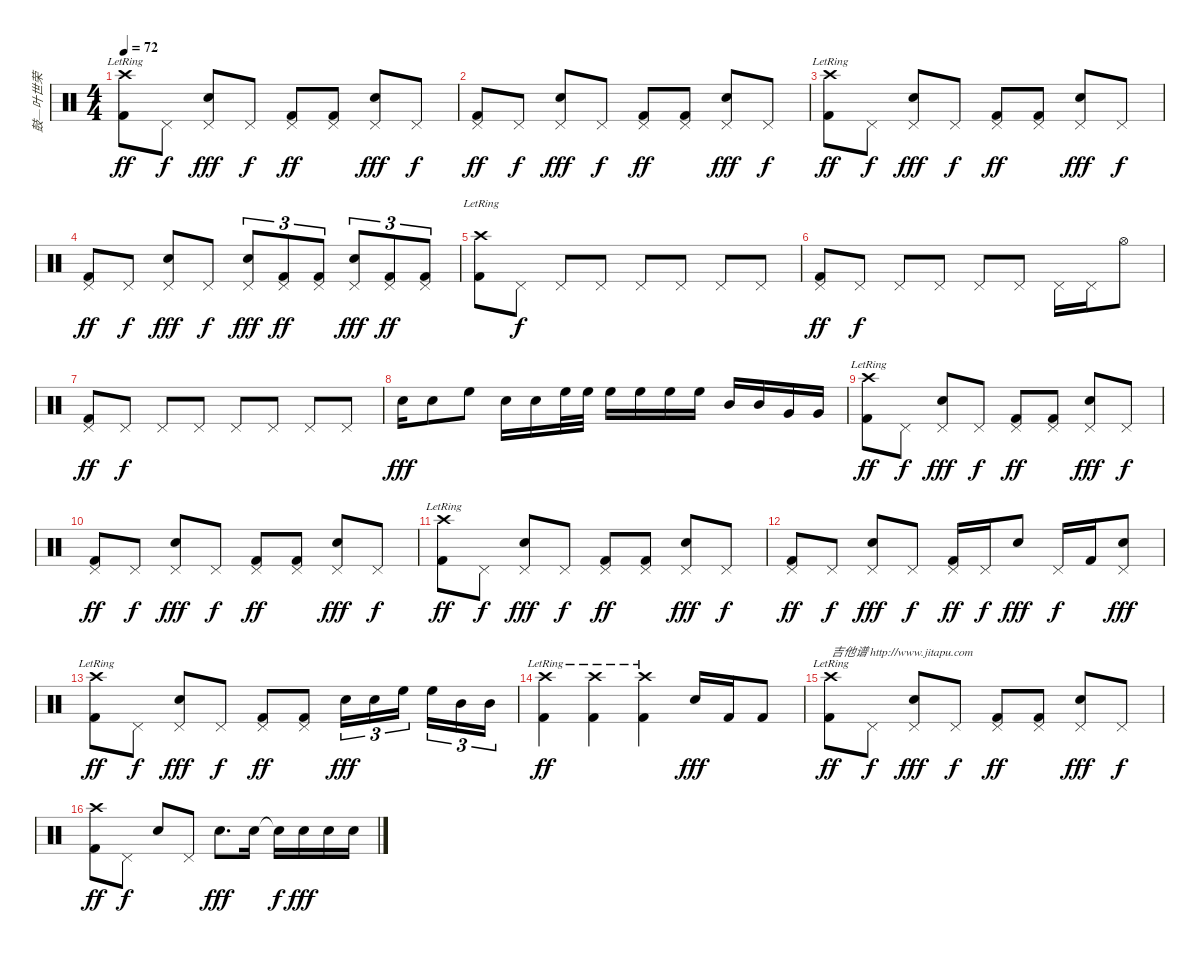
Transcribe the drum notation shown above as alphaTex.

\track ("鼓—叶世荣" "鼓—叶世荣") {instrument percussion}
\staff {score}
\articulation defaults
\ts (4 4)
\tempo 72
\clef neutral
\ks c
("Crash high (hit)"{lr} "Kick (hit) 2").8{dy ff} "Pedal Hi-Hat (hit)".8{dy f} ("Pedal Hi-Hat (hit)" "Electric Snare (hit)").8{dy fff} "Pedal Hi-Hat (hit)".8{dy f} ("Pedal Hi-Hat (hit)" "Kick (hit) 2").8{dy ff} ("Pedal Hi-Hat (hit)" "Kick (hit) 2").8 ("Pedal Hi-Hat (hit)" "Electric Snare (hit)").8{dy fff} "Pedal Hi-Hat (hit)".8{dy f} |
("Pedal Hi-Hat (hit)" "Kick (hit) 2").8{dy ff} "Pedal Hi-Hat (hit)".8{dy f} ("Pedal Hi-Hat (hit)" "Electric Snare (hit)").8{dy fff} "Pedal Hi-Hat (hit)".8{dy f} ("Pedal Hi-Hat (hit)" "Kick (hit) 2").8{dy ff} ("Pedal Hi-Hat (hit)" "Kick (hit) 2").8 ("Pedal Hi-Hat (hit)" "Electric Snare (hit)").8{dy fff} "Pedal Hi-Hat (hit)".8{dy f} |
("Crash high (hit)"{lr} "Kick (hit) 2").8{dy ff} "Pedal Hi-Hat (hit)".8{dy f} ("Pedal Hi-Hat (hit)" "Electric Snare (hit)").8{dy fff} "Pedal Hi-Hat (hit)".8{dy f} ("Pedal Hi-Hat (hit)" "Kick (hit) 2").8{dy ff} ("Pedal Hi-Hat (hit)" "Kick (hit) 2").8 ("Pedal Hi-Hat (hit)" "Electric Snare (hit)").8{dy fff} "Pedal Hi-Hat (hit)".8{dy f} |
("Pedal Hi-Hat (hit)" "Kick (hit) 2").8{dy ff} "Pedal Hi-Hat (hit)".8{dy f} ("Pedal Hi-Hat (hit)" "Electric Snare (hit)").8{dy fff} "Pedal Hi-Hat (hit)".8{dy f} ("Pedal Hi-Hat (hit)" "Electric Snare (hit)").8{tu (3 2) dy fff} ("Pedal Hi-Hat (hit)" "Kick (hit) 2").8{tu (3 2) dy ff} ("Pedal Hi-Hat (hit)" "Kick (hit) 2").8{tu (3 2)} ("Pedal Hi-Hat (hit)" "Electric Snare (hit)").8{tu (3 2) dy fff} ("Pedal Hi-Hat (hit)" "Kick (hit) 2").8{tu (3 2) dy ff} ("Pedal Hi-Hat (hit)" "Kick (hit) 2").8{tu (3 2)} |
("Crash high (hit)"{lr} "Kick (hit) 2").8 "Pedal Hi-Hat (hit)".8{dy f} "Pedal Hi-Hat (hit)".8 "Pedal Hi-Hat (hit)".8 "Pedal Hi-Hat (hit)".8 "Pedal Hi-Hat (hit)".8 "Pedal Hi-Hat (hit)".8 "Pedal Hi-Hat (hit)".8 |
("Pedal Hi-Hat (hit)" "Kick (hit) 2").8{dy ff} "Pedal Hi-Hat (hit)".8{dy f} "Pedal Hi-Hat (hit)".8 "Pedal Hi-Hat (hit)".8 "Pedal Hi-Hat (hit)".8 "Pedal Hi-Hat (hit)".8 "Pedal Hi-Hat (hit)".16 "Pedal Hi-Hat (hit)".16 "Hi-Hat (open)".8 |
("Pedal Hi-Hat (hit)" "Kick (hit) 2").8{dy ff} "Pedal Hi-Hat (hit)".8{dy f} "Pedal Hi-Hat (hit)".8 "Pedal Hi-Hat (hit)".8 "Pedal Hi-Hat (hit)".8 "Pedal Hi-Hat (hit)".8 "Pedal Hi-Hat (hit)".8 "Pedal Hi-Hat (hit)".8 |
"Electric Snare (hit)".16{dy fff} "Electric Snare (hit)".8 "High Floor Tom (hit)".8 "Electric Snare (hit)".16 "Electric Snare (hit)".16 "High Floor Tom (hit)".32 "High Floor Tom (hit)".32 "High Floor Tom (hit)".16 "High Floor Tom (hit)".16 "High Floor Tom (hit)".16 "High Floor Tom (hit)".16 "Mid Tom (hit)".16 "Mid Tom (hit)".16 "Very Low Tom (hit)".16 "Very Low Tom (hit)".16 |
("Crash high (hit)"{lr} "Kick (hit) 2").8{dy ff} "Pedal Hi-Hat (hit)".8{dy f} ("Pedal Hi-Hat (hit)" "Electric Snare (hit)").8{dy fff} "Pedal Hi-Hat (hit)".8{dy f} ("Pedal Hi-Hat (hit)" "Kick (hit) 2").8{dy ff} ("Pedal Hi-Hat (hit)" "Kick (hit) 2").8 ("Pedal Hi-Hat (hit)" "Electric Snare (hit)").8{dy fff} "Pedal Hi-Hat (hit)".8{dy f} |
("Pedal Hi-Hat (hit)" "Kick (hit) 2").8{dy ff} "Pedal Hi-Hat (hit)".8{dy f} ("Pedal Hi-Hat (hit)" "Electric Snare (hit)").8{dy fff} "Pedal Hi-Hat (hit)".8{dy f} ("Pedal Hi-Hat (hit)" "Kick (hit) 2").8{dy ff} ("Pedal Hi-Hat (hit)" "Kick (hit) 2").8 ("Pedal Hi-Hat (hit)" "Electric Snare (hit)").8{dy fff} "Pedal Hi-Hat (hit)".8{dy f} |
("Crash high (hit)"{lr} "Kick (hit) 2").8{dy ff} "Pedal Hi-Hat (hit)".8{dy f} ("Pedal Hi-Hat (hit)" "Electric Snare (hit)").8{dy fff} "Pedal Hi-Hat (hit)".8{dy f} ("Pedal Hi-Hat (hit)" "Kick (hit) 2").8{dy ff} ("Pedal Hi-Hat (hit)" "Kick (hit) 2").8 ("Pedal Hi-Hat (hit)" "Electric Snare (hit)").8{dy fff} "Pedal Hi-Hat (hit)".8{dy f} |
("Pedal Hi-Hat (hit)" "Kick (hit) 2").8{dy ff} "Pedal Hi-Hat (hit)".8{dy f} ("Pedal Hi-Hat (hit)" "Electric Snare (hit)").8{dy fff} "Pedal Hi-Hat (hit)".8{dy f} ("Pedal Hi-Hat (hit)" "Kick (hit) 2").16{dy ff} "Pedal Hi-Hat (hit)".16{dy f} "Electric Snare (hit)".8{dy fff} "Pedal Hi-Hat (hit)".16{dy f} "Kick (hit) 2".16 ("Pedal Hi-Hat (hit)" "Electric Snare (hit)").8{dy fff} |
("Crash high (hit)"{lr} "Kick (hit) 2").8{dy ff} "Pedal Hi-Hat (hit)".8{dy f} ("Pedal Hi-Hat (hit)" "Electric Snare (hit)").8{dy fff} "Pedal Hi-Hat (hit)".8{dy f} ("Pedal Hi-Hat (hit)" "Kick (hit) 2").8{dy ff} ("Pedal Hi-Hat (hit)" "Kick (hit) 2").8 "Electric Snare (hit)".16{tu (3 2) dy fff} "Electric Snare (hit)".16{tu (3 2)} "High Floor Tom (hit)".16{tu (3 2) beam splitsecondary} "High Floor Tom (hit)".16{tu (3 2)} "Mid Tom (hit)".16{tu (3 2)} "Mid Tom (hit)".16{tu (3 2)} |
("Crash high (hit)"{lr} "Kick (hit) 2").4{dy ff} ("Crash high (hit)"{lr} "Kick (hit) 2").4 ("Crash high (hit)"{lr} "Kick (hit) 2").4 "Electric Snare (hit)".16{dy fff} "Kick (hit) 2".16 "Kick (hit) 2".8 |
("Crash high (hit)"{lr} "Kick (hit) 2").8{txt "吉他谱 http://www.jitapu.com" dy ff} "Pedal Hi-Hat (hit)".8{dy f} ("Pedal Hi-Hat (hit)" "Electric Snare (hit)").8{dy fff} "Pedal Hi-Hat (hit)".8{dy f} ("Pedal Hi-Hat (hit)" "Kick (hit) 2").8{dy ff} ("Pedal Hi-Hat (hit)" "Kick (hit) 2").8 ("Pedal Hi-Hat (hit)" "Electric Snare (hit)").8{dy fff} "Pedal Hi-Hat (hit)".8{dy f} |
("Crash high (hit)" "Kick (hit) 2").8{dy ff} "Pedal Hi-Hat (hit)".8{dy f} "Electric Snare (hit)".8 "Pedal Hi-Hat (hit)".8 "Electric Snare (hit)".8{d dy fff} "Electric Snare (hit)".16 "Snare (hit)"{t}.16{dy f} "Electric Snare (hit)".16{dy fff} "Electric Snare (hit)".16 "Electric Snare (hit)".16
